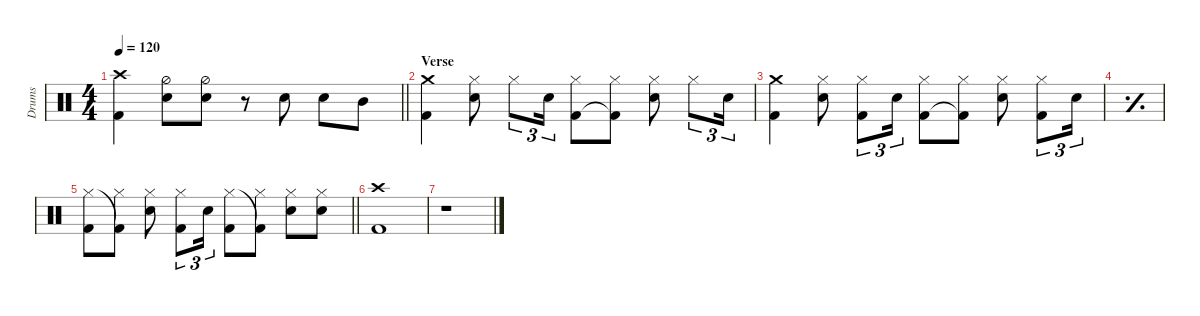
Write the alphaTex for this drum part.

\defaultSystemsLayout 4
\hideDynamics
\bracketExtendMode nobrackets
\otherSystemsTrackNameOrientation horizontal
\track ("Drums" "Drums") {defaultSystemsLayout 8 multiBarRest instrument percussion}
\staff {score}
\articulation defaults
\ts (4 4)
\tempo 120
\clef neutral
\barLineRight lightlight
\ks c
("Crash high (hit)" "Kick (hit) 2").4{dy mf beam Down} ("Snare (hit) 2" "Hi-Hat (half)").8{beam Down} ("Snare (hit) 2" "Hi-Hat (half)").8{beam Down} r.8{beam Down} "Snare (hit) 2".8{beam Down} "Snare (hit) 2".8{beam Down} "Mid Tom (hit)".8{beam Down} |
\section ("" "Verse")
("Kick (hit) 2" "Crash medium (hit)").4{beam Down} ("Snare (hit) 2" "Hi-Hat (closed)").8{beam Down} "Hi-Hat (closed)".8{tu (3 2) beam Down} "Snare (hit) 2".16{tu (3 2) beam Down} ("Kick (hit) 2" "Hi-Hat (closed)").8{beam Down} ("Kick (hit) 2"{t} "Hi-Hat (closed)").8{beam Down} ("Snare (hit) 2" "Hi-Hat (closed)").8{beam Down} "Hi-Hat (closed)".8{tu (3 2) beam Down} "Snare (hit) 2".16{tu (3 2) beam Down} |
("Kick (hit) 2" "Crash medium (hit)").4{beam Down} ("Snare (hit) 2" "Hi-Hat (closed)").8{beam Down} ("Hi-Hat (closed)" "Kick (hit) 2").8{tu (3 2) beam Down} "Snare (hit) 2".16{tu (3 2) beam Down} ("Kick (hit) 2" "Hi-Hat (closed)").8{beam Down} ("Kick (hit) 2"{t} "Hi-Hat (closed)").8{beam Down} ("Snare (hit) 2" "Hi-Hat (closed)").8{beam Down} ("Hi-Hat (closed)" "Kick (hit) 2").8{tu (3 2) beam Down} "Snare (hit) 2".16{tu (3 2) beam Down} |
\simile simple
|
\simile none
\barLineRight lightlight
("Hi-Hat (closed)" "Kick (hit) 2").8{beam Down} ("Kick (hit) 2"{t} "Hi-Hat (closed)").8{beam Down} ("Hi-Hat (closed)" "Snare (hit) 2").8{beam Down} ("Hi-Hat (closed)" "Kick (hit) 2").8{tu (3 2) beam Down} "Snare (hit) 2".16{tu (3 2) beam Down} ("Kick (hit) 2" "Hi-Hat (closed)").8{beam Down} ("Hi-Hat (closed)" "Kick (hit) 2"{t}).8{beam Down} ("Hi-Hat (closed)" "Snare (hit) 2").8{beam Down} ("Hi-Hat (closed)" "Snare (hit) 2").8{beam Down} |
("Kick (hit) 2" "Crash high (hit)").1{beam Down} |
r.1{beam Down}
